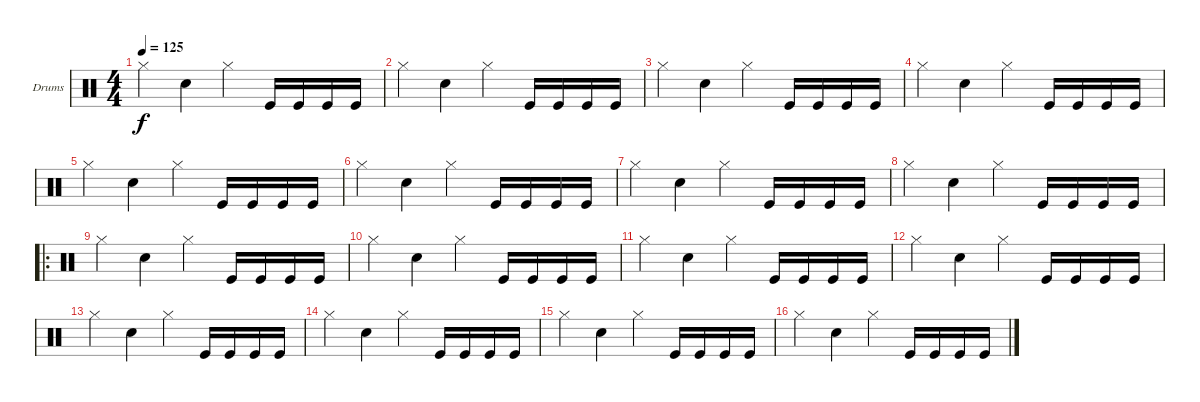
\defaultSystemsLayout 4
\bracketExtendMode groupsimilarinstruments
\firstSystemTrackNameOrientation horizontal
\otherSystemsTrackNameOrientation horizontal
\track ("Барабаны1" "Drums") {instrument percussion}
\staff {score}
\articulation defaults
\ts (4 4)
\tempo 125
\clef neutral
\scale
0.472222
\ks c "Hi-Hat (closed)".4{dy f} "Snare (hit) 2".4 "Hi-Hat (closed)".4 "Kick (hit)".16 "Kick (hit)".16 "Kick (hit)".16 "Kick (hit)".16
|
\scale
0.263889 "Hi-Hat (closed)".4 "Snare (hit) 2".4 "Hi-Hat (closed)".4 "Kick (hit)".16 "Kick (hit)".16 "Kick (hit)".16 "Kick (hit)".16 |
\scale
0.263889 "Hi-Hat (closed)".4 "Snare (hit) 2".4 "Hi-Hat (closed)".4 "Kick (hit)".16 "Kick (hit)".16 "Kick (hit)".16 "Kick (hit)".16 |
\scale
0.333333 "Hi-Hat (closed)".4 "Snare (hit) 2".4 "Hi-Hat (closed)".4 "Kick (hit)".16 "Kick (hit)".16 "Kick (hit)".16 "Kick (hit)".16 |
\scale
0.333333 "Hi-Hat (closed)".4 "Snare (hit) 2".4 "Hi-Hat (closed)".4 "Kick (hit)".16 "Kick (hit)".16 "Kick (hit)".16 "Kick (hit)".16 |
\scale
0.333333 "Hi-Hat (closed)".4 "Snare (hit) 2".4 "Hi-Hat (closed)".4 "Kick (hit)".16 "Kick (hit)".16 "Kick (hit)".16 "Kick (hit)".16 |
\scale
0.311475 "Hi-Hat (closed)".4 "Snare (hit) 2".4 "Hi-Hat (closed)".4 "Kick (hit)".16 "Kick (hit)".16 "Kick (hit)".16 "Kick (hit)".16 |
\scale
0.311475 "Hi-Hat (closed)".4 "Snare (hit) 2".4 "Hi-Hat (closed)".4 "Kick (hit)".16 "Kick (hit)".16 "Kick (hit)".16 "Kick (hit)".16 |
\ro
\scale
0.377049 "Hi-Hat (closed)".4 "Snare (hit) 2".4 "Hi-Hat (closed)".4 "Kick (hit)".16 "Kick (hit)".16 "Kick (hit)".16 "Kick (hit)".16 |
\scale
0.333333 "Hi-Hat (closed)".4 "Snare (hit) 2".4 "Hi-Hat (closed)".4 "Kick (hit)".16 "Kick (hit)".16 "Kick (hit)".16 "Kick (hit)".16 |
\scale
0.333333 "Hi-Hat (closed)".4 "Snare (hit) 2".4 "Hi-Hat (closed)".4 "Kick (hit)".16 "Kick (hit)".16 "Kick (hit)".16 "Kick (hit)".16 |
\scale
0.333333 "Hi-Hat (closed)".4 "Snare (hit) 2".4 "Hi-Hat (closed)".4 "Kick (hit)".16 "Kick (hit)".16 "Kick (hit)".16 "Kick (hit)".16 |
\scale
0.333333 "Hi-Hat (closed)".4 "Snare (hit) 2".4 "Hi-Hat (closed)".4 "Kick (hit)".16 "Kick (hit)".16 "Kick (hit)".16 "Kick (hit)".16 |
\scale
0.333333 "Hi-Hat (closed)".4 "Snare (hit) 2".4 "Hi-Hat (closed)".4 "Kick (hit)".16 "Kick (hit)".16 "Kick (hit)".16 "Kick (hit)".16 |
\scale
0.333333 "Hi-Hat (closed)".4 "Snare (hit) 2".4 "Hi-Hat (closed)".4 "Kick (hit)".16 "Kick (hit)".16 "Kick (hit)".16 "Kick (hit)".16 |
\scale
0.333333 "Hi-Hat (closed)".4 "Snare (hit) 2".4 "Hi-Hat (closed)".4 "Kick (hit)".16 "Kick (hit)".16 "Kick (hit)".16 "Kick (hit)".16
